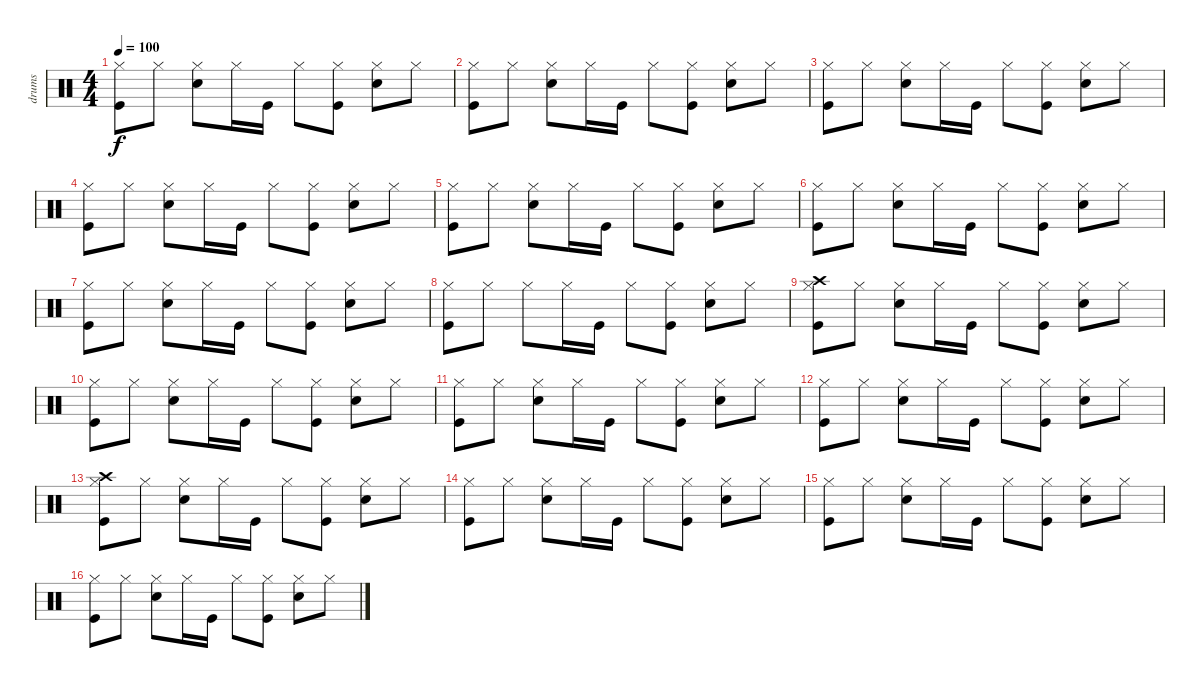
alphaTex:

\track ("drums" "drums") {instrument percussion}
\staff {score}
\articulation defaults
\ts (4 4)
\tempo 100
\clef neutral
\ks c
("Kick (hit)" "Hi-Hat (closed)").8{dy f} "Hi-Hat (closed)".8 ("Snare (hit) 2" "Hi-Hat (closed)").8 "Hi-Hat (closed)".16 "Kick (hit)".16 "Hi-Hat (closed)".8 ("Kick (hit)" "Hi-Hat (closed)").8 ("Snare (hit) 2" "Hi-Hat (closed)").8 "Hi-Hat (closed)".8 |
("Kick (hit)" "Hi-Hat (closed)").8 "Hi-Hat (closed)".8 ("Snare (hit) 2" "Hi-Hat (closed)").8 "Hi-Hat (closed)".16 "Kick (hit)".16 "Hi-Hat (closed)".8 ("Kick (hit)" "Hi-Hat (closed)").8 ("Snare (hit) 2" "Hi-Hat (closed)").8 "Hi-Hat (closed)".8 |
("Kick (hit)" "Hi-Hat (closed)").8 "Hi-Hat (closed)".8 ("Snare (hit) 2" "Hi-Hat (closed)").8 "Hi-Hat (closed)".16 "Kick (hit)".16 "Hi-Hat (closed)".8 ("Kick (hit)" "Hi-Hat (closed)").8 ("Snare (hit) 2" "Hi-Hat (closed)").8 "Hi-Hat (closed)".8 |
("Kick (hit)" "Hi-Hat (closed)").8 "Hi-Hat (closed)".8 ("Snare (hit) 2" "Hi-Hat (closed)").8 "Hi-Hat (closed)".16 "Kick (hit)".16 "Hi-Hat (closed)".8 ("Kick (hit)" "Hi-Hat (closed)").8 ("Snare (hit) 2" "Hi-Hat (closed)").8 "Hi-Hat (closed)".8 |
("Kick (hit)" "Hi-Hat (closed)").8 "Hi-Hat (closed)".8 ("Snare (hit) 2" "Hi-Hat (closed)").8 "Hi-Hat (closed)".16 "Kick (hit)".16 "Hi-Hat (closed)".8 ("Kick (hit)" "Hi-Hat (closed)").8 ("Snare (hit) 2" "Hi-Hat (closed)").8 "Hi-Hat (closed)".8 |
("Kick (hit)" "Hi-Hat (closed)").8 "Hi-Hat (closed)".8 ("Snare (hit) 2" "Hi-Hat (closed)").8 "Hi-Hat (closed)".16 "Kick (hit)".16 "Hi-Hat (closed)".8 ("Kick (hit)" "Hi-Hat (closed)").8 ("Snare (hit) 2" "Hi-Hat (closed)").8 "Hi-Hat (closed)".8 |
("Kick (hit)" "Hi-Hat (closed)").8 "Hi-Hat (closed)".8 ("Snare (hit) 2" "Hi-Hat (closed)").8 "Hi-Hat (closed)".16 "Kick (hit)".16 "Hi-Hat (closed)".8 ("Kick (hit)" "Hi-Hat (closed)").8 ("Snare (hit) 2" "Hi-Hat (closed)").8 "Hi-Hat (closed)".8 |
("Kick (hit)" "Hi-Hat (closed)").8 "Hi-Hat (closed)".8 "Hi-Hat (closed)".8 "Hi-Hat (closed)".16 "Kick (hit)".16 "Hi-Hat (closed)".8 ("Kick (hit)" "Hi-Hat (closed)").8 ("Snare (hit) 2" "Hi-Hat (closed)").8 "Hi-Hat (closed)".8 |
("Kick (hit)" "Hi-Hat (closed)" "Crash high (hit)").8 "Hi-Hat (closed)".8 ("Snare (hit) 2" "Hi-Hat (closed)").8 "Hi-Hat (closed)".16 "Kick (hit)".16 "Hi-Hat (closed)".8 ("Kick (hit)" "Hi-Hat (closed)").8 ("Snare (hit) 2" "Hi-Hat (closed)").8 "Hi-Hat (closed)".8 |
("Kick (hit)" "Hi-Hat (closed)").8 "Hi-Hat (closed)".8 ("Snare (hit) 2" "Hi-Hat (closed)").8 "Hi-Hat (closed)".16 "Kick (hit)".16 "Hi-Hat (closed)".8 ("Kick (hit)" "Hi-Hat (closed)").8 ("Snare (hit) 2" "Hi-Hat (closed)").8 "Hi-Hat (closed)".8 |
("Kick (hit)" "Hi-Hat (closed)").8 "Hi-Hat (closed)".8 ("Snare (hit) 2" "Hi-Hat (closed)").8 "Hi-Hat (closed)".16 "Kick (hit)".16 "Hi-Hat (closed)".8 ("Kick (hit)" "Hi-Hat (closed)").8 ("Snare (hit) 2" "Hi-Hat (closed)").8 "Hi-Hat (closed)".8 |
("Kick (hit)" "Hi-Hat (closed)").8 "Hi-Hat (closed)".8 ("Snare (hit) 2" "Hi-Hat (closed)").8 "Hi-Hat (closed)".16 "Kick (hit)".16 "Hi-Hat (closed)".8 ("Kick (hit)" "Hi-Hat (closed)").8 ("Snare (hit) 2" "Hi-Hat (closed)").8 "Hi-Hat (closed)".8 |
("Kick (hit)" "Hi-Hat (closed)" "Crash high (hit)").8 "Hi-Hat (closed)".8 ("Snare (hit) 2" "Hi-Hat (closed)").8 "Hi-Hat (closed)".16 "Kick (hit)".16 "Hi-Hat (closed)".8 ("Kick (hit)" "Hi-Hat (closed)").8 ("Snare (hit) 2" "Hi-Hat (closed)").8 "Hi-Hat (closed)".8 |
("Kick (hit)" "Hi-Hat (closed)").8 "Hi-Hat (closed)".8 ("Snare (hit) 2" "Hi-Hat (closed)").8 "Hi-Hat (closed)".16 "Kick (hit)".16 "Hi-Hat (closed)".8 ("Kick (hit)" "Hi-Hat (closed)").8 ("Snare (hit) 2" "Hi-Hat (closed)").8 "Hi-Hat (closed)".8 |
("Kick (hit)" "Hi-Hat (closed)").8 "Hi-Hat (closed)".8 ("Snare (hit) 2" "Hi-Hat (closed)").8 "Hi-Hat (closed)".16 "Kick (hit)".16 "Hi-Hat (closed)".8 ("Kick (hit)" "Hi-Hat (closed)").8 ("Snare (hit) 2" "Hi-Hat (closed)").8 "Hi-Hat (closed)".8 |
("Kick (hit)" "Hi-Hat (closed)").8 "Hi-Hat (closed)".8 ("Snare (hit) 2" "Hi-Hat (closed)").8 "Hi-Hat (closed)".16 "Kick (hit)".16 "Hi-Hat (closed)".8 ("Kick (hit)" "Hi-Hat (closed)").8 ("Snare (hit) 2" "Hi-Hat (closed)").8 "Hi-Hat (closed)".8
